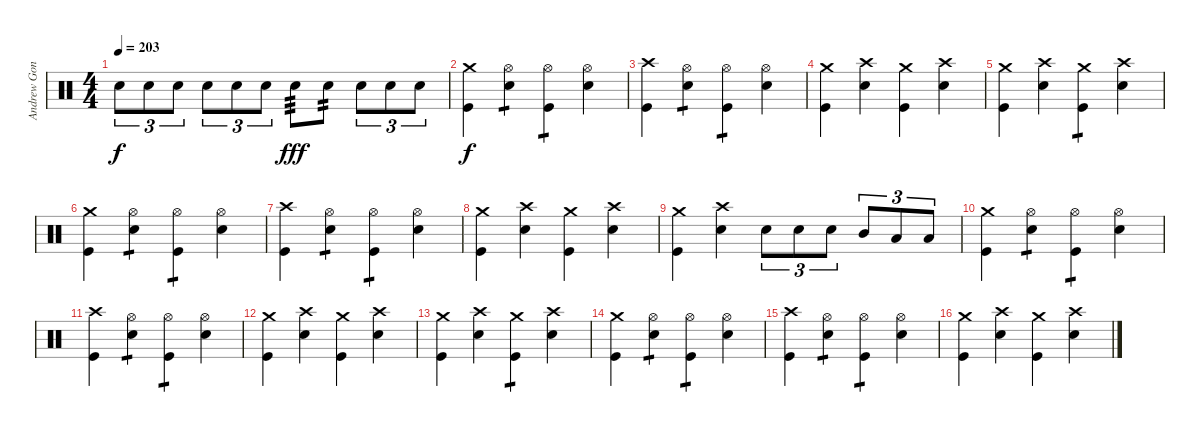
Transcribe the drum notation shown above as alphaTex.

\track ("Andrew Gonzales" "Andrew Gon") {instrument percussion}
\staff {score}
\articulation defaults
\ts (4 4)
\tempo 203
\clef neutral
\ks c "Electric Snare (hit)".8{tu (3 2) dy f} "Electric Snare (hit)".8{tu (3 2)} "Electric Snare (hit)".8{tu (3 2)} "Electric Snare (hit)".8{tu (3 2)} "Electric Snare (hit)".8{tu (3 2)} "Electric Snare (hit)".8{tu (3 2)} "Electric Snare (hit)".8{tp 3 dy fff} "Electric Snare (hit)".8{tp 2} "Electric Snare (hit)".8{tu (3 2)} "Electric Snare (hit)".8{tu (3 2)} "Electric Snare (hit)".8{tu (3 2)}
|
("Crash medium (hit)" "Kick (hit)").4{dy f} ("Hi-Hat (open)" "Electric Snare (hit)").4{tp 1} ("Hi-Hat (open)" "Kick (hit)").4{tp 1} ("Hi-Hat (open)" "Electric Snare (hit)").4 |
("Crash high (hit)" "Kick (hit)").4 ("Hi-Hat (open)" "Electric Snare (hit)").4{tp 1} ("Hi-Hat (open)" "Kick (hit)").4{tp 1} ("Hi-Hat (open)" "Electric Snare (hit)").4 |
("Crash medium (hit)" "Kick (hit)").4 ("Crash high (hit)" "Electric Snare (hit)").4 ("Crash medium (hit)" "Kick (hit)").4 ("Crash high (hit)" "Electric Snare (hit)").4 |
("Crash medium (hit)" "Kick (hit)").4 ("Crash high (hit)" "Electric Snare (hit)").4 ("Crash medium (hit)" "Kick (hit)").4{tp 1} ("Crash high (hit)" "Electric Snare (hit)").4 |
("Crash medium (hit)" "Kick (hit)").4 ("Hi-Hat (open)" "Electric Snare (hit)").4{tp 1} ("Hi-Hat (open)" "Kick (hit)").4{tp 1} ("Hi-Hat (open)" "Electric Snare (hit)").4 |
("Crash high (hit)" "Kick (hit)").4 ("Hi-Hat (open)" "Electric Snare (hit)").4{tp 1} ("Hi-Hat (open)" "Kick (hit)").4{tp 1} ("Hi-Hat (open)" "Electric Snare (hit)").4 |
("Crash medium (hit)" "Kick (hit)").4 ("Crash high (hit)" "Electric Snare (hit)").4 ("Crash medium (hit)" "Kick (hit)").4 ("Crash high (hit)" "Electric Snare (hit)").4 |
("Crash medium (hit)" "Kick (hit)").4 ("Crash high (hit)" "Electric Snare (hit)").4 "Electric Snare (hit)".8{tu (3 2)} "Electric Snare (hit)".8{tu (3 2)} "Electric Snare (hit)".8{tu (3 2)} "Mid Tom (hit)".8{tu (3 2)} "Low Tom (hit)".8{tu (3 2)} "Low Floor Tom (hit)".8{tu (3 2)} |
("Crash medium (hit)" "Kick (hit)").4 ("Hi-Hat (open)" "Electric Snare (hit)").4{tp 1} ("Hi-Hat (open)" "Kick (hit)").4{tp 1} ("Hi-Hat (open)" "Electric Snare (hit)").4 |
("Crash high (hit)" "Kick (hit)").4 ("Hi-Hat (open)" "Electric Snare (hit)").4{tp 1} ("Hi-Hat (open)" "Kick (hit)").4{tp 1} ("Hi-Hat (open)" "Electric Snare (hit)").4 |
("Crash medium (hit)" "Kick (hit)").4 ("Crash high (hit)" "Electric Snare (hit)").4 ("Crash medium (hit)" "Kick (hit)").4 ("Crash high (hit)" "Electric Snare (hit)").4 |
("Crash medium (hit)" "Kick (hit)").4 ("Crash high (hit)" "Electric Snare (hit)").4 ("Crash medium (hit)" "Kick (hit)").4{tp 1} ("Crash high (hit)" "Electric Snare (hit)").4 |
("Crash medium (hit)" "Kick (hit)").4 ("Hi-Hat (open)" "Electric Snare (hit)").4{tp 1} ("Hi-Hat (open)" "Kick (hit)").4{tp 1} ("Hi-Hat (open)" "Electric Snare (hit)").4 |
("Crash high (hit)" "Kick (hit)").4 ("Hi-Hat (open)" "Electric Snare (hit)").4{tp 1} ("Hi-Hat (open)" "Kick (hit)").4{tp 1} ("Hi-Hat (open)" "Electric Snare (hit)").4 |
("Crash medium (hit)" "Kick (hit)").4 ("Crash high (hit)" "Electric Snare (hit)").4 ("Crash medium (hit)" "Kick (hit)").4 ("Crash high (hit)" "Electric Snare (hit)").4
